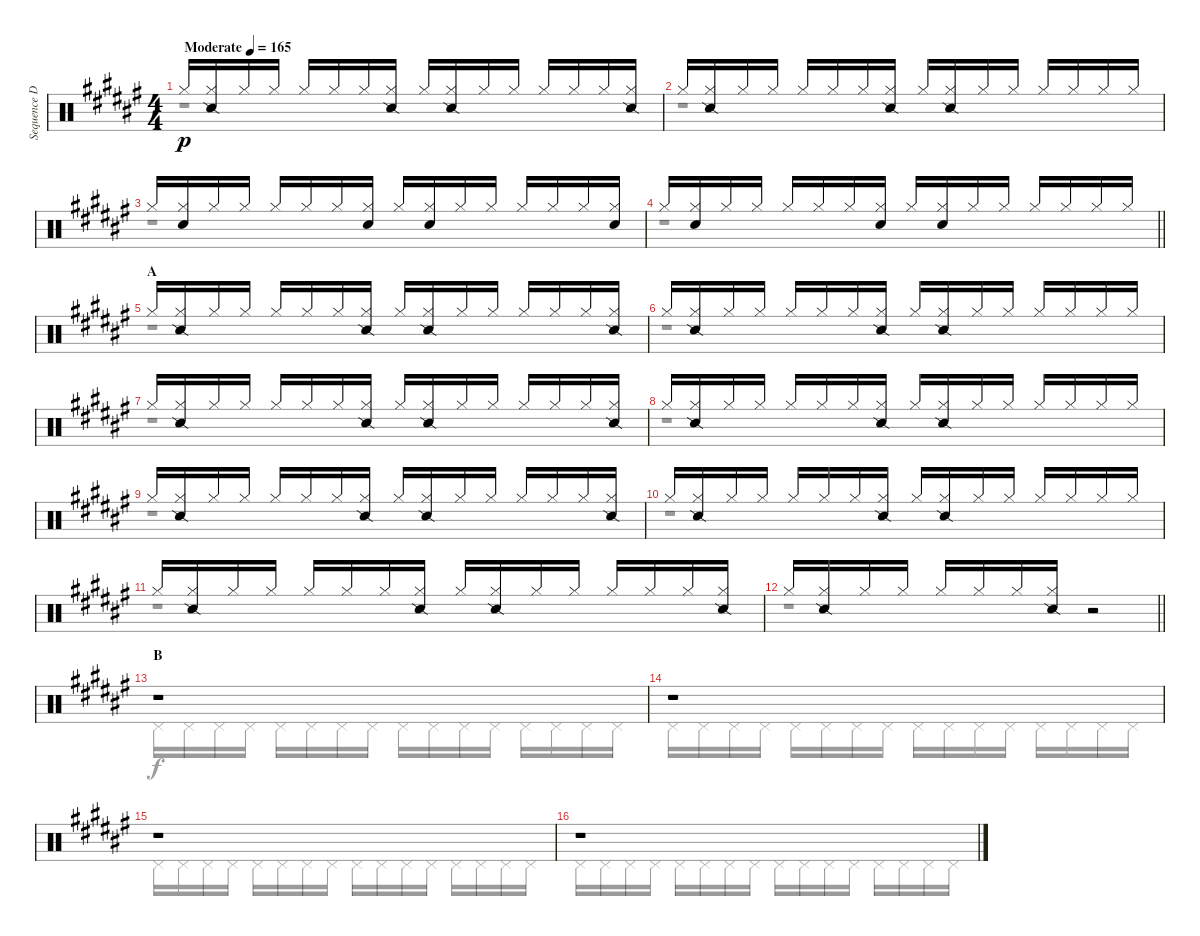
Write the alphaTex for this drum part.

\track ("Sequence Drums" "Sequence D") {instrument percussion}
\staff {score}
\articulation defaults
\voice
\ts (4 4)
\tempo (165 "Moderate")
\clef neutral
\ks f# "Hi-Hat (closed)".16{dy p}
("Hi-Hat (closed)" "Snare (side stick) 2").16 "Hi-Hat (closed)".16 "Hi-Hat (closed)".16 "Hi-Hat (closed)".16 "Hi-Hat (closed)".16 "Hi-Hat (closed)".16 ("Hi-Hat (closed)" "Snare (side stick) 2").16 "Hi-Hat (closed)".16 ("Hi-Hat (closed)" "Snare (side stick) 2").16 "Hi-Hat (closed)".16 "Hi-Hat (closed)".16 "Hi-Hat (closed)".16 "Hi-Hat (closed)".16 "Hi-Hat (closed)".16 ("Hi-Hat (closed)" "Snare (side stick) 2").16 |
"Hi-Hat (closed)".16 ("Hi-Hat (closed)" "Snare (side stick) 2").16 "Hi-Hat (closed)".16 "Hi-Hat (closed)".16 "Hi-Hat (closed)".16 "Hi-Hat (closed)".16 "Hi-Hat (closed)".16 ("Hi-Hat (closed)" "Snare (side stick) 2").16 "Hi-Hat (closed)".16 ("Hi-Hat (closed)" "Snare (side stick) 2").16 "Hi-Hat (closed)".16 "Hi-Hat (closed)".16 "Hi-Hat (closed)".16 "Hi-Hat (closed)".16 "Hi-Hat (closed)".16 "Hi-Hat (closed)".16 |
"Hi-Hat (closed)".16 ("Hi-Hat (closed)" "Electric Snare (hit)").16 "Hi-Hat (closed)".16 "Hi-Hat (closed)".16 "Hi-Hat (closed)".16 "Hi-Hat (closed)".16 "Hi-Hat (closed)".16 ("Hi-Hat (closed)" "Electric Snare (hit)").16 "Hi-Hat (closed)".16 ("Hi-Hat (closed)" "Electric Snare (hit)").16 "Hi-Hat (closed)".16 "Hi-Hat (closed)".16 "Hi-Hat (closed)".16 "Hi-Hat (closed)".16 "Hi-Hat (closed)".16 ("Hi-Hat (closed)" "Electric Snare (hit)").16 |
\barLineRight lightlight "Hi-Hat (closed)".16
("Hi-Hat (closed)" "Electric Snare (hit)").16 "Hi-Hat (closed)".16 "Hi-Hat (closed)".16 "Hi-Hat (closed)".16 "Hi-Hat (closed)".16 "Hi-Hat (closed)".16 ("Hi-Hat (closed)" "Electric Snare (hit)").16 "Hi-Hat (closed)".16 ("Hi-Hat (closed)" "Electric Snare (hit)").16 "Hi-Hat (closed)".16 "Hi-Hat (closed)".16 "Hi-Hat (closed)".16 "Hi-Hat (closed)".16 "Hi-Hat (closed)".16 "Hi-Hat (closed)".16 |
\section ("" "A")
"Hi-Hat (closed)".16 ("Hi-Hat (closed)" "Snare (side stick) 2").16 "Hi-Hat (closed)".16 "Hi-Hat (closed)".16 "Hi-Hat (closed)".16 "Hi-Hat (closed)".16 "Hi-Hat (closed)".16 ("Hi-Hat (closed)" "Snare (side stick) 2").16 "Hi-Hat (closed)".16 ("Hi-Hat (closed)" "Snare (side stick) 2").16 "Hi-Hat (closed)".16 "Hi-Hat (closed)".16 "Hi-Hat (closed)".16 "Hi-Hat (closed)".16 "Hi-Hat (closed)".16 ("Hi-Hat (closed)" "Snare (side stick) 2").16 |
"Hi-Hat (closed)".16 ("Hi-Hat (closed)" "Snare (side stick) 2").16 "Hi-Hat (closed)".16 "Hi-Hat (closed)".16 "Hi-Hat (closed)".16 "Hi-Hat (closed)".16 "Hi-Hat (closed)".16 ("Hi-Hat (closed)" "Snare (side stick) 2").16 "Hi-Hat (closed)".16 ("Hi-Hat (closed)" "Snare (side stick) 2").16 "Hi-Hat (closed)".16 "Hi-Hat (closed)".16 "Hi-Hat (closed)".16 "Hi-Hat (closed)".16 "Hi-Hat (closed)".16 "Hi-Hat (closed)".16 |
"Hi-Hat (closed)".16 ("Hi-Hat (closed)" "Snare (side stick) 2").16 "Hi-Hat (closed)".16 "Hi-Hat (closed)".16 "Hi-Hat (closed)".16 "Hi-Hat (closed)".16 "Hi-Hat (closed)".16 ("Hi-Hat (closed)" "Snare (side stick) 2").16 "Hi-Hat (closed)".16 ("Hi-Hat (closed)" "Snare (side stick) 2").16 "Hi-Hat (closed)".16 "Hi-Hat (closed)".16 "Hi-Hat (closed)".16 "Hi-Hat (closed)".16 "Hi-Hat (closed)".16 ("Hi-Hat (closed)" "Snare (side stick) 2").16 |
"Hi-Hat (closed)".16 ("Hi-Hat (closed)" "Snare (side stick) 2").16 "Hi-Hat (closed)".16 "Hi-Hat (closed)".16 "Hi-Hat (closed)".16 "Hi-Hat (closed)".16 "Hi-Hat (closed)".16 ("Hi-Hat (closed)" "Snare (side stick) 2").16 "Hi-Hat (closed)".16 ("Hi-Hat (closed)" "Snare (side stick) 2").16 "Hi-Hat (closed)".16 "Hi-Hat (closed)".16 "Hi-Hat (closed)".16 "Hi-Hat (closed)".16 "Hi-Hat (closed)".16 "Hi-Hat (closed)".16 |
"Hi-Hat (closed)".16 ("Hi-Hat (closed)" "Snare (side stick) 2").16 "Hi-Hat (closed)".16 "Hi-Hat (closed)".16 "Hi-Hat (closed)".16 "Hi-Hat (closed)".16 "Hi-Hat (closed)".16 ("Hi-Hat (closed)" "Snare (side stick) 2").16 "Hi-Hat (closed)".16 ("Hi-Hat (closed)" "Snare (side stick) 2").16 "Hi-Hat (closed)".16 "Hi-Hat (closed)".16 "Hi-Hat (closed)".16 "Hi-Hat (closed)".16 "Hi-Hat (closed)".16 ("Hi-Hat (closed)" "Snare (side stick) 2").16 |
"Hi-Hat (closed)".16 ("Hi-Hat (closed)" "Snare (side stick) 2").16 "Hi-Hat (closed)".16 "Hi-Hat (closed)".16 "Hi-Hat (closed)".16 "Hi-Hat (closed)".16 "Hi-Hat (closed)".16 ("Hi-Hat (closed)" "Snare (side stick) 2").16 "Hi-Hat (closed)".16 ("Hi-Hat (closed)" "Snare (side stick) 2").16 "Hi-Hat (closed)".16 "Hi-Hat (closed)".16 "Hi-Hat (closed)".16 "Hi-Hat (closed)".16 "Hi-Hat (closed)".16 "Hi-Hat (closed)".16 |
"Hi-Hat (closed)".16 ("Hi-Hat (closed)" "Snare (side stick) 2").16 "Hi-Hat (closed)".16 "Hi-Hat (closed)".16 "Hi-Hat (closed)".16 "Hi-Hat (closed)".16 "Hi-Hat (closed)".16 ("Hi-Hat (closed)" "Snare (side stick) 2").16 "Hi-Hat (closed)".16 ("Hi-Hat (closed)" "Snare (side stick) 2").16 "Hi-Hat (closed)".16 "Hi-Hat (closed)".16 "Hi-Hat (closed)".16 "Hi-Hat (closed)".16 "Hi-Hat (closed)".16 ("Hi-Hat (closed)" "Snare (side stick) 2").16 |
\barLineRight lightlight "Hi-Hat (closed)".16
("Hi-Hat (closed)" "Snare (side stick) 2").16 "Hi-Hat (closed)".16 "Hi-Hat (closed)".16 "Hi-Hat (closed)".16 "Hi-Hat (closed)".16 "Hi-Hat (closed)".16 ("Hi-Hat (closed)" "Snare (side stick) 2").16 r.2 |
\section ("" "B")
r.1 |
r.1 |
r.1 |
r.1
\voice
\clef neutral
\ottava regular
\simile none
\ks f#
r.1{dy f} |
r.1 |
r.1 |
\barLineRight lightlight
r.1 |
r.1 |
r.1 |
r.1 |
r.1 |
r.1 |
r.1 |
r.1 |
\barLineRight lightlight
r.1 |
"Pedal Hi-Hat (hit)".16 "Pedal Hi-Hat (hit)".16 "Pedal Hi-Hat (hit)".16 "Pedal Hi-Hat (hit)".16 "Pedal Hi-Hat (hit)".16 "Pedal Hi-Hat (hit)".16 "Pedal Hi-Hat (hit)".16 "Pedal Hi-Hat (hit)".16 "Pedal Hi-Hat (hit)".16 "Pedal Hi-Hat (hit)".16 "Pedal Hi-Hat (hit)".16 "Pedal Hi-Hat (hit)".16 "Pedal Hi-Hat (hit)".16 "Pedal Hi-Hat (hit)".16 "Pedal Hi-Hat (hit)".16 "Pedal Hi-Hat (hit)".16 |
"Pedal Hi-Hat (hit)".16 "Pedal Hi-Hat (hit)".16 "Pedal Hi-Hat (hit)".16 "Pedal Hi-Hat (hit)".16 "Pedal Hi-Hat (hit)".16 "Pedal Hi-Hat (hit)".16 "Pedal Hi-Hat (hit)".16 "Pedal Hi-Hat (hit)".16 "Pedal Hi-Hat (hit)".16 "Pedal Hi-Hat (hit)".16 "Pedal Hi-Hat (hit)".16 "Pedal Hi-Hat (hit)".16 "Pedal Hi-Hat (hit)".16 "Pedal Hi-Hat (hit)".16 "Pedal Hi-Hat (hit)".16 "Pedal Hi-Hat (hit)".16 |
"Pedal Hi-Hat (hit)".16 "Pedal Hi-Hat (hit)".16 "Pedal Hi-Hat (hit)".16 "Pedal Hi-Hat (hit)".16 "Pedal Hi-Hat (hit)".16 "Pedal Hi-Hat (hit)".16 "Pedal Hi-Hat (hit)".16 "Pedal Hi-Hat (hit)".16 "Pedal Hi-Hat (hit)".16 "Pedal Hi-Hat (hit)".16 "Pedal Hi-Hat (hit)".16 "Pedal Hi-Hat (hit)".16 "Pedal Hi-Hat (hit)".16 "Pedal Hi-Hat (hit)".16 "Pedal Hi-Hat (hit)".16 "Pedal Hi-Hat (hit)".16 |
"Pedal Hi-Hat (hit)".16 "Pedal Hi-Hat (hit)".16 "Pedal Hi-Hat (hit)".16 "Pedal Hi-Hat (hit)".16 "Pedal Hi-Hat (hit)".16 "Pedal Hi-Hat (hit)".16 "Pedal Hi-Hat (hit)".16 "Pedal Hi-Hat (hit)".16 "Pedal Hi-Hat (hit)".16 "Pedal Hi-Hat (hit)".16 "Pedal Hi-Hat (hit)".16 "Pedal Hi-Hat (hit)".16 "Pedal Hi-Hat (hit)".16 "Pedal Hi-Hat (hit)".16 "Pedal Hi-Hat (hit)".16 "Pedal Hi-Hat (hit)".16
